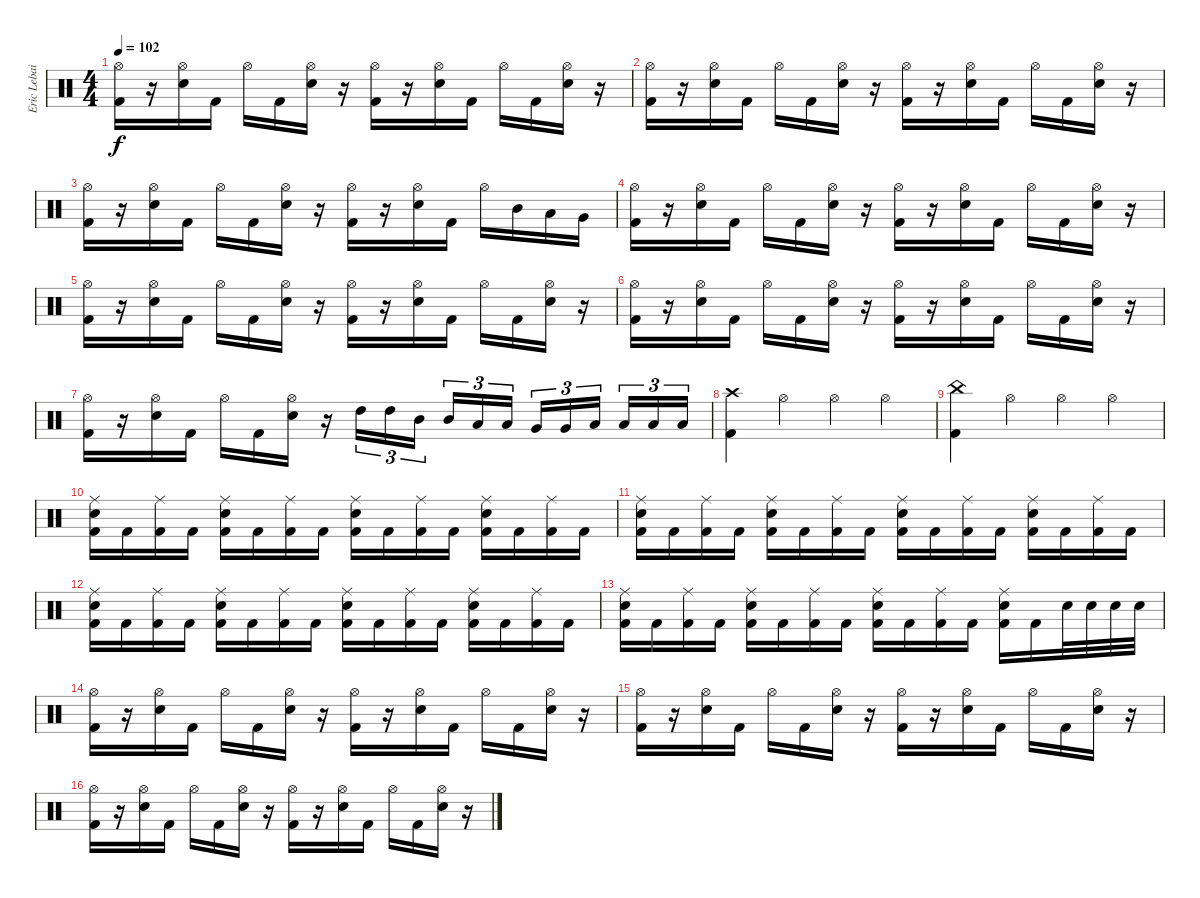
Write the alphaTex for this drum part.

\track ("Eric Lebailly" "Eric Lebai") {instrument percussion}
\staff {score}
\articulation defaults
\ts (4 4)
\tempo 102
\clef neutral
\ks c
("Hi-Hat (open)" "Kick (hit) 2").16{dy f} r.16 ("Hi-Hat (open)" "Snare (hit) 2").16 "Kick (hit) 2".16 "Hi-Hat (open)".16 "Kick (hit) 2".16 ("Hi-Hat (open)" "Snare (hit) 2").16 r.16 ("Hi-Hat (open)" "Kick (hit) 2").16 r.16 ("Hi-Hat (open)" "Snare (hit) 2").16 "Kick (hit) 2".16 "Hi-Hat (open)".16 "Kick (hit) 2".16 ("Hi-Hat (open)" "Snare (hit) 2").16 r.16 |
("Hi-Hat (open)" "Kick (hit) 2").16 r.16 ("Hi-Hat (open)" "Snare (hit) 2").16 "Kick (hit) 2".16 "Hi-Hat (open)".16 "Kick (hit) 2".16 ("Hi-Hat (open)" "Snare (hit) 2").16 r.16 ("Hi-Hat (open)" "Kick (hit) 2").16 r.16 ("Hi-Hat (open)" "Snare (hit) 2").16 "Kick (hit) 2".16 "Hi-Hat (open)".16 "Kick (hit) 2".16 ("Hi-Hat (open)" "Snare (hit) 2").16 r.16 |
("Hi-Hat (open)" "Kick (hit) 2").16 r.16 ("Hi-Hat (open)" "Snare (hit) 2").16 "Kick (hit) 2".16 "Hi-Hat (open)".16 "Kick (hit) 2".16 ("Hi-Hat (open)" "Snare (hit) 2").16 r.16 ("Hi-Hat (open)" "Kick (hit) 2").16 r.16 ("Hi-Hat (open)" "Snare (hit) 2").16 "Kick (hit) 2".16 "Hi-Hat (open)".16 "Mid Tom (hit)".16 "Low Tom (hit)".16 "Very Low Tom (hit)".16 |
("Hi-Hat (open)" "Kick (hit) 2").16 r.16 ("Hi-Hat (open)" "Snare (hit) 2").16 "Kick (hit) 2".16 "Hi-Hat (open)".16 "Kick (hit) 2".16 ("Hi-Hat (open)" "Snare (hit) 2").16 r.16 ("Hi-Hat (open)" "Kick (hit) 2").16 r.16 ("Hi-Hat (open)" "Snare (hit) 2").16 "Kick (hit) 2".16 "Hi-Hat (open)".16 "Kick (hit) 2".16 ("Hi-Hat (open)" "Snare (hit) 2").16 r.16 |
("Hi-Hat (open)" "Kick (hit) 2").16 r.16 ("Hi-Hat (open)" "Snare (hit) 2").16 "Kick (hit) 2".16 "Hi-Hat (open)".16 "Kick (hit) 2".16 ("Hi-Hat (open)" "Snare (hit) 2").16 r.16 ("Hi-Hat (open)" "Kick (hit) 2").16 r.16 ("Hi-Hat (open)" "Snare (hit) 2").16 "Kick (hit) 2".16 "Hi-Hat (open)".16 "Kick (hit) 2".16 ("Hi-Hat (open)" "Snare (hit) 2").16 r.16 |
("Hi-Hat (open)" "Kick (hit) 2").16 r.16 ("Hi-Hat (open)" "Snare (hit) 2").16 "Kick (hit) 2".16 "Hi-Hat (open)".16 "Kick (hit) 2".16 ("Hi-Hat (open)" "Snare (hit) 2").16 r.16 ("Hi-Hat (open)" "Kick (hit) 2").16 r.16 ("Hi-Hat (open)" "Snare (hit) 2").16 "Kick (hit) 2".16 "Hi-Hat (open)".16 "Kick (hit) 2".16 ("Hi-Hat (open)" "Snare (hit) 2").16 r.16 |
("Hi-Hat (open)" "Kick (hit) 2").16 r.16 ("Hi-Hat (open)" "Snare (hit) 2").16 "Kick (hit) 2".16 "Hi-Hat (open)".16 "Kick (hit) 2".16 ("Hi-Hat (open)" "Snare (hit) 2").16 r.16 "High Tom (hit)".16{tu (3 2)} "High Tom (hit)".16{tu (3 2)} "Mid Tom (hit)".16{tu (3 2) beam splitsecondary} "Mid Tom (hit)".16{tu (3 2)} "Low Tom (hit)".16{tu (3 2)} "Low Tom (hit)".16{tu (3 2)} "Very Low Tom (hit)".16{tu (3 2)} "Very Low Tom (hit)".16{tu (3 2)} "Low Floor Tom (hit)".16{tu (3 2) beam splitsecondary} "Low Floor Tom (hit)".16{tu (3 2)} "Low Floor Tom (hit)".16{tu (3 2)} "Low Floor Tom (hit)".16{tu (3 2)} |
("Crash high (hit)" "Kick (hit) 2").4 "Hi-Hat (open)".4 "Hi-Hat (open)".4 "Hi-Hat (open)".4 |
("China (hit)" "Kick (hit) 2").4 "Hi-Hat (open)".4 "Hi-Hat (open)".4 "Hi-Hat (open)".4 |
("Ride (middle)" "Snare (hit) 2" "Kick (hit) 2").16 "Kick (hit) 2".16 ("Ride (middle)" "Kick (hit) 2").16 "Kick (hit) 2".16 ("Ride (middle)" "Snare (hit) 2" "Kick (hit) 2").16 "Kick (hit) 2".16 ("Ride (middle)" "Kick (hit) 2").16 "Kick (hit) 2".16 ("Ride (middle)" "Snare (hit) 2" "Kick (hit) 2").16 "Kick (hit) 2".16 ("Ride (middle)" "Kick (hit) 2").16 "Kick (hit) 2".16 ("Ride (middle)" "Snare (hit) 2" "Kick (hit) 2").16 "Kick (hit) 2".16 ("Ride (middle)" "Kick (hit) 2").16 "Kick (hit) 2".16 |
("Ride (middle)" "Snare (hit) 2" "Kick (hit) 2").16 "Kick (hit) 2".16 ("Ride (middle)" "Kick (hit) 2").16 "Kick (hit) 2".16 ("Ride (middle)" "Snare (hit) 2" "Kick (hit) 2").16 "Kick (hit) 2".16 ("Ride (middle)" "Kick (hit) 2").16 "Kick (hit) 2".16 ("Ride (middle)" "Snare (hit) 2" "Kick (hit) 2").16 "Kick (hit) 2".16 ("Ride (middle)" "Kick (hit) 2").16 "Kick (hit) 2".16 ("Ride (middle)" "Snare (hit) 2" "Kick (hit) 2").16 "Kick (hit) 2".16 ("Ride (middle)" "Kick (hit) 2").16 "Kick (hit) 2".16 |
("Ride (middle)" "Snare (hit) 2" "Kick (hit) 2").16 "Kick (hit) 2".16 ("Ride (middle)" "Kick (hit) 2").16 "Kick (hit) 2".16 ("Ride (middle)" "Snare (hit) 2" "Kick (hit) 2").16 "Kick (hit) 2".16 ("Ride (middle)" "Kick (hit) 2").16 "Kick (hit) 2".16 ("Ride (middle)" "Snare (hit) 2" "Kick (hit) 2").16 "Kick (hit) 2".16 ("Ride (middle)" "Kick (hit) 2").16 "Kick (hit) 2".16 ("Ride (middle)" "Snare (hit) 2" "Kick (hit) 2").16 "Kick (hit) 2".16 ("Ride (middle)" "Kick (hit) 2").16 "Kick (hit) 2".16 |
("Ride (middle)" "Snare (hit) 2" "Kick (hit) 2").16 "Kick (hit) 2".16 ("Ride (middle)" "Kick (hit) 2").16 "Kick (hit) 2".16 ("Ride (middle)" "Snare (hit) 2" "Kick (hit) 2").16 "Kick (hit) 2".16 ("Ride (middle)" "Kick (hit) 2").16 "Kick (hit) 2".16 ("Ride (middle)" "Snare (hit) 2" "Kick (hit) 2").16 "Kick (hit) 2".16 ("Ride (middle)" "Kick (hit) 2").16 "Kick (hit) 2".16 ("Ride (middle)" "Snare (hit) 2" "Kick (hit) 2").16 "Kick (hit) 2".16 "Snare (hit) 2".32 "Snare (hit) 2".32 "Snare (hit) 2".32 "Snare (hit) 2".32 |
("Hi-Hat (open)" "Kick (hit) 2").16 r.16 ("Hi-Hat (open)" "Snare (hit) 2").16 "Kick (hit) 2".16 "Hi-Hat (open)".16 "Kick (hit) 2".16 ("Hi-Hat (open)" "Snare (hit) 2").16 r.16 ("Hi-Hat (open)" "Kick (hit) 2").16 r.16 ("Hi-Hat (open)" "Snare (hit) 2").16 "Kick (hit) 2".16 "Hi-Hat (open)".16 "Kick (hit) 2".16 ("Hi-Hat (open)" "Snare (hit) 2").16 r.16 |
("Hi-Hat (open)" "Kick (hit) 2").16 r.16 ("Hi-Hat (open)" "Snare (hit) 2").16 "Kick (hit) 2".16 "Hi-Hat (open)".16 "Kick (hit) 2".16 ("Hi-Hat (open)" "Snare (hit) 2").16 r.16 ("Hi-Hat (open)" "Kick (hit) 2").16 r.16 ("Hi-Hat (open)" "Snare (hit) 2").16 "Kick (hit) 2".16 "Hi-Hat (open)".16 "Kick (hit) 2".16 ("Hi-Hat (open)" "Snare (hit) 2").16 r.16 |
("Hi-Hat (open)" "Kick (hit) 2").16 r.16 ("Hi-Hat (open)" "Snare (hit) 2").16 "Kick (hit) 2".16 "Hi-Hat (open)".16 "Kick (hit) 2".16 ("Hi-Hat (open)" "Snare (hit) 2").16 r.16 ("Hi-Hat (open)" "Kick (hit) 2").16 r.16 ("Hi-Hat (open)" "Snare (hit) 2").16 "Kick (hit) 2".16 "Hi-Hat (open)".16 "Kick (hit) 2".16 ("Hi-Hat (open)" "Snare (hit) 2").16 r.16
